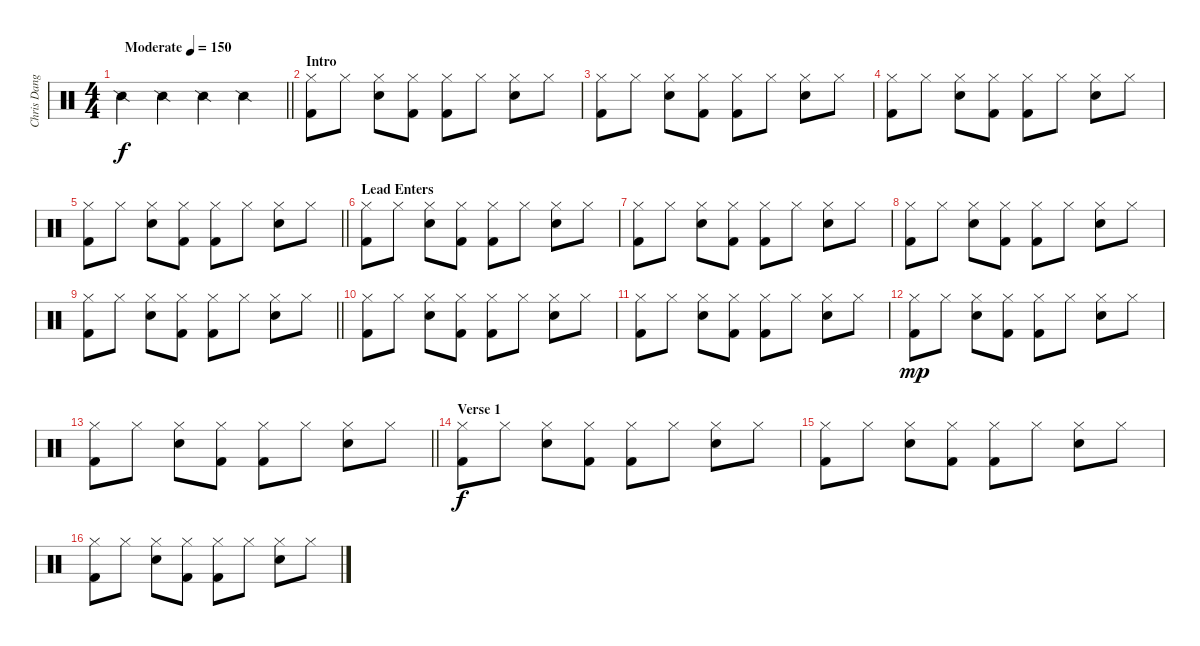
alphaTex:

\track ("Chris Dangerous" "Chris Dang") {instrument percussion}
\staff {score}
\articulation defaults
\ts (4 4)
\tempo (150 "Moderate")
\clef neutral
\barLineRight lightlight
\ks c "Snare (side stick) 2".4{dy f} "Snare (side stick) 2".4 "Snare (side stick) 2".4 "Snare (side stick) 2".4
|
\section ("" "Intro")
("Hi-Hat (closed)" "Kick (hit) 2").8 "Hi-Hat (closed)".8 ("Hi-Hat (closed)" "Snare (hit) 2").8 ("Hi-Hat (closed)" "Kick (hit) 2").8 ("Hi-Hat (closed)" "Kick (hit) 2").8 "Hi-Hat (closed)".8 ("Hi-Hat (closed)" "Snare (hit) 2").8 "Hi-Hat (closed)".8 |
("Hi-Hat (closed)" "Kick (hit) 2").8 "Hi-Hat (closed)".8 ("Hi-Hat (closed)" "Snare (hit) 2").8 ("Hi-Hat (closed)" "Kick (hit) 2").8 ("Hi-Hat (closed)" "Kick (hit) 2").8 "Hi-Hat (closed)".8 ("Hi-Hat (closed)" "Snare (hit) 2").8 "Hi-Hat (closed)".8 |
("Hi-Hat (closed)" "Kick (hit) 2").8 "Hi-Hat (closed)".8 ("Hi-Hat (closed)" "Snare (hit) 2").8 ("Hi-Hat (closed)" "Kick (hit) 2").8 ("Hi-Hat (closed)" "Kick (hit) 2").8 "Hi-Hat (closed)".8 ("Hi-Hat (closed)" "Snare (hit) 2").8 "Hi-Hat (closed)".8 |
\barLineRight lightlight
("Hi-Hat (closed)" "Kick (hit) 2").8 "Hi-Hat (closed)".8 ("Hi-Hat (closed)" "Snare (hit) 2").8 ("Hi-Hat (closed)" "Kick (hit) 2").8 ("Hi-Hat (closed)" "Kick (hit) 2").8 "Hi-Hat (closed)".8 ("Hi-Hat (closed)" "Snare (hit) 2").8 "Hi-Hat (closed)".8 |
\section ("" "Lead Enters")
("Hi-Hat (closed)" "Kick (hit) 2").8 "Hi-Hat (closed)".8 ("Hi-Hat (closed)" "Snare (hit) 2").8 ("Hi-Hat (closed)" "Kick (hit) 2").8 ("Hi-Hat (closed)" "Kick (hit) 2").8 "Hi-Hat (closed)".8 ("Hi-Hat (closed)" "Snare (hit) 2").8 "Hi-Hat (closed)".8 |
("Hi-Hat (closed)" "Kick (hit) 2").8 "Hi-Hat (closed)".8 ("Hi-Hat (closed)" "Snare (hit) 2").8 ("Hi-Hat (closed)" "Kick (hit) 2").8 ("Hi-Hat (closed)" "Kick (hit) 2").8 "Hi-Hat (closed)".8 ("Hi-Hat (closed)" "Snare (hit) 2").8 "Hi-Hat (closed)".8 |
("Hi-Hat (closed)" "Kick (hit) 2").8 "Hi-Hat (closed)".8 ("Hi-Hat (closed)" "Snare (hit) 2").8 ("Hi-Hat (closed)" "Kick (hit) 2").8 ("Hi-Hat (closed)" "Kick (hit) 2").8 "Hi-Hat (closed)".8 ("Hi-Hat (closed)" "Snare (hit) 2").8 "Hi-Hat (closed)".8 |
\barLineRight lightlight
("Hi-Hat (closed)" "Kick (hit) 2").8 "Hi-Hat (closed)".8 ("Hi-Hat (closed)" "Snare (hit) 2").8 ("Hi-Hat (closed)" "Kick (hit) 2").8 ("Hi-Hat (closed)" "Kick (hit) 2").8 "Hi-Hat (closed)".8 ("Hi-Hat (closed)" "Snare (hit) 2").8 "Hi-Hat (closed)".8 |
("Hi-Hat (closed)" "Kick (hit) 2").8 "Hi-Hat (closed)".8 ("Hi-Hat (closed)" "Snare (hit) 2").8 ("Hi-Hat (closed)" "Kick (hit) 2").8 ("Hi-Hat (closed)" "Kick (hit) 2").8 "Hi-Hat (closed)".8 ("Hi-Hat (closed)" "Snare (hit) 2").8 "Hi-Hat (closed)".8 |
("Hi-Hat (closed)" "Kick (hit) 2").8 "Hi-Hat (closed)".8 ("Hi-Hat (closed)" "Snare (hit) 2").8 ("Hi-Hat (closed)" "Kick (hit) 2").8 ("Hi-Hat (closed)" "Kick (hit) 2").8 "Hi-Hat (closed)".8 ("Hi-Hat (closed)" "Snare (hit) 2").8 "Hi-Hat (closed)".8 |
("Hi-Hat (closed)" "Kick (hit) 2").8{dy mp} "Hi-Hat (closed)".8 ("Hi-Hat (closed)" "Snare (hit) 2").8 ("Hi-Hat (closed)" "Kick (hit) 2").8 ("Hi-Hat (closed)" "Kick (hit) 2").8 "Hi-Hat (closed)".8 ("Hi-Hat (closed)" "Snare (hit) 2").8 "Hi-Hat (closed)".8 |
\barLineRight lightlight
("Hi-Hat (closed)" "Kick (hit) 2").8 "Hi-Hat (closed)".8 ("Hi-Hat (closed)" "Snare (hit) 2").8 ("Hi-Hat (closed)" "Kick (hit) 2").8 ("Hi-Hat (closed)" "Kick (hit) 2").8 "Hi-Hat (closed)".8 ("Hi-Hat (closed)" "Snare (hit) 2").8 "Hi-Hat (closed)".8 |
\section ("" "Verse 1")
("Hi-Hat (closed)" "Kick (hit) 2").8{dy f} "Hi-Hat (closed)".8 ("Hi-Hat (closed)" "Snare (hit) 2").8 ("Hi-Hat (closed)" "Kick (hit) 2").8 ("Hi-Hat (closed)" "Kick (hit) 2").8 "Hi-Hat (closed)".8 ("Hi-Hat (closed)" "Snare (hit) 2").8 "Hi-Hat (closed)".8 |
("Hi-Hat (closed)" "Kick (hit) 2").8 "Hi-Hat (closed)".8 ("Hi-Hat (closed)" "Snare (hit) 2").8 ("Hi-Hat (closed)" "Kick (hit) 2").8 ("Hi-Hat (closed)" "Kick (hit) 2").8 "Hi-Hat (closed)".8 ("Hi-Hat (closed)" "Snare (hit) 2").8 "Hi-Hat (closed)".8 |
("Hi-Hat (closed)" "Kick (hit) 2").8 "Hi-Hat (closed)".8 ("Hi-Hat (closed)" "Snare (hit) 2").8 ("Hi-Hat (closed)" "Kick (hit) 2").8 ("Hi-Hat (closed)" "Kick (hit) 2").8 "Hi-Hat (closed)".8 ("Hi-Hat (closed)" "Snare (hit) 2").8 "Hi-Hat (closed)".8
